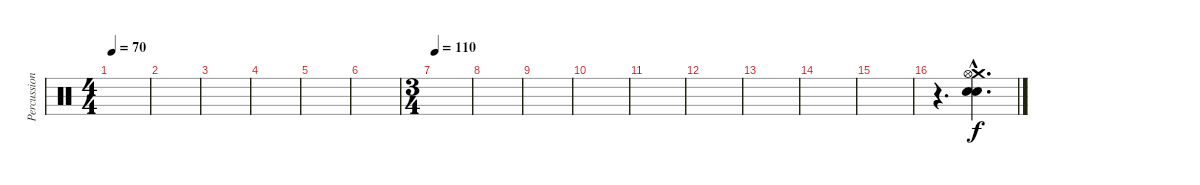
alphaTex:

\track ("Percussions" "Percussion") {instrument percussion}
\staff {score}
\articulation defaults
\ts (4 4)
\tempo 70
\clef neutral
\ks c
|
|
|
|
|
|
\ts (3 4)
\tempo 110
|
|
|
|
|
|
|
|
|
r.4{d} ("Crash medium (hit)"{hac} "Snare (hit) 2"{hac} "Electric Snare (hit)"{hac} "Hi-Hat (open)"{hac}).4{d}
